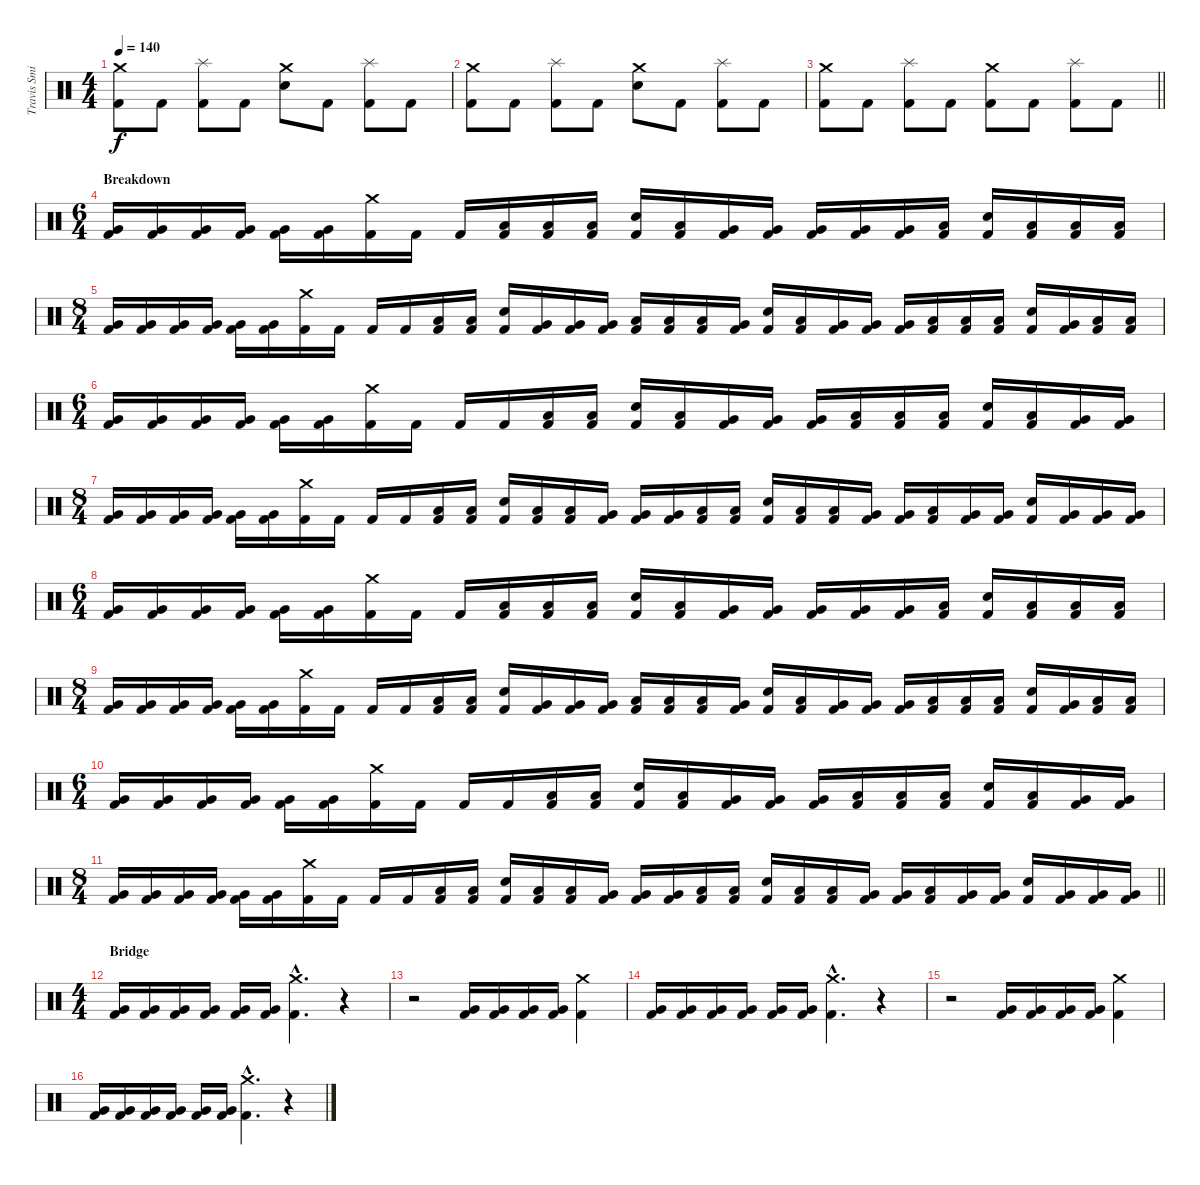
\track ("Travis Smith" "Travis Smi") {instrument percussion}
\staff {score}
\articulation defaults
\ts (4 4)
\tempo 140
\clef neutral
\ks c
("Crash medium (hit)" "Kick (hit) 2").8{dy f} "Kick (hit) 2".8 ("Splash (hit)" "Kick (hit) 2").8 "Kick (hit) 2".8 ("Crash medium (hit)" "Electric Snare (hit)").8 "Kick (hit) 2".8 ("Splash (hit)" "Kick (hit) 2").8 "Kick (hit) 2".8 |
("Crash medium (hit)" "Kick (hit) 2").8 "Kick (hit) 2".8 ("Splash (hit)" "Kick (hit) 2").8 "Kick (hit) 2".8 ("Crash medium (hit)" "Electric Snare (hit)").8 "Kick (hit) 2".8 ("Splash (hit)" "Kick (hit) 2").8 "Kick (hit) 2".8 |
\barLineRight lightlight
("Crash medium (hit)" "Kick (hit) 2").8 "Kick (hit) 2".8 ("Splash (hit)" "Kick (hit) 2").8 "Kick (hit) 2".8 ("Crash medium (hit)" "Kick (hit) 2").8 "Kick (hit) 2".8 ("Splash (hit)" "Kick (hit) 2").8 "Kick (hit) 2".8 |
\ts (6 4)
\section ("" "Breakdown")
("Very Low Tom (hit)" "Kick (hit) 2").16 ("Very Low Tom (hit)" "Kick (hit) 2").16 ("Very Low Tom (hit)" "Kick (hit) 2").16 ("Very Low Tom (hit)" "Kick (hit) 2").16 ("Very Low Tom (hit)" "Kick (hit) 2").16 ("Very Low Tom (hit)" "Kick (hit) 2").16 ("Crash medium (hit)" "Kick (hit) 2").16 "Kick (hit) 2".16 "Kick (hit) 2".16 ("Low Floor Tom (hit)" "Kick (hit) 2").16 ("Low Floor Tom (hit)" "Kick (hit) 2").16 ("Low Floor Tom (hit)" "Kick (hit) 2").16 ("Electric Snare (hit)" "Kick (hit) 2").16 ("Low Tom (hit)" "Kick (hit) 2").16 ("Very Low Tom (hit)" "Kick (hit) 2").16 ("Very Low Tom (hit)" "Kick (hit) 2").16 ("Very Low Tom (hit)" "Kick (hit) 2").16 ("Very Low Tom (hit)" "Kick (hit) 2").16 ("Very Low Tom (hit)" "Kick (hit) 2").16 ("Low Floor Tom (hit)" "Kick (hit) 2").16 ("Electric Snare (hit)" "Kick (hit) 2").16 ("Low Floor Tom (hit)" "Kick (hit) 2").16 ("Low Floor Tom (hit)" "Kick (hit) 2").16 ("Low Floor Tom (hit)" "Kick (hit) 2").16 |
\ts (8 4)
("Very Low Tom (hit)" "Kick (hit) 2").16 ("Very Low Tom (hit)" "Kick (hit) 2").16 ("Very Low Tom (hit)" "Kick (hit) 2").16 ("Very Low Tom (hit)" "Kick (hit) 2").16 ("Very Low Tom (hit)" "Kick (hit) 2").16 ("Very Low Tom (hit)" "Kick (hit) 2").16 ("Crash medium (hit)" "Kick (hit) 2").16 "Kick (hit) 2".16 "Kick (hit) 2".16 "Kick (hit) 2".16 ("Low Floor Tom (hit)" "Kick (hit) 2").16 ("Low Floor Tom (hit)" "Kick (hit) 2").16 ("Electric Snare (hit)" "Kick (hit) 2").16 ("Very Low Tom (hit)" "Kick (hit) 2").16 ("Very Low Tom (hit)" "Kick (hit) 2").16 ("Very Low Tom (hit)" "Kick (hit) 2").16 ("Low Floor Tom (hit)" "Kick (hit) 2").16 ("Low Floor Tom (hit)" "Kick (hit) 2").16 ("Low Floor Tom (hit)" "Kick (hit) 2").16 ("Very Low Tom (hit)" "Kick (hit) 2").16 ("Electric Snare (hit)" "Kick (hit) 2").16 ("Low Tom (hit)" "Kick (hit) 2").16 ("Very Low Tom (hit)" "Kick (hit) 2").16 ("Very Low Tom (hit)" "Kick (hit) 2").16 ("Very Low Tom (hit)" "Kick (hit) 2").16 ("Low Floor Tom (hit)" "Kick (hit) 2").16 ("Low Floor Tom (hit)" "Kick (hit) 2").16 ("Low Floor Tom (hit)" "Kick (hit) 2").16 ("Electric Snare (hit)" "Kick (hit) 2").16 ("Very Low Tom (hit)" "Kick (hit) 2").16 ("Low Floor Tom (hit)" "Kick (hit) 2").16 ("Low Floor Tom (hit)" "Kick (hit) 2").16 |
\ts (6 4)
("Very Low Tom (hit)" "Kick (hit) 2").16 ("Very Low Tom (hit)" "Kick (hit) 2").16 ("Very Low Tom (hit)" "Kick (hit) 2").16 ("Very Low Tom (hit)" "Kick (hit) 2").16 ("Very Low Tom (hit)" "Kick (hit) 2").16 ("Very Low Tom (hit)" "Kick (hit) 2").16 ("Crash medium (hit)" "Kick (hit) 2").16 "Kick (hit) 2".16 "Kick (hit) 2".16 "Kick (hit) 2".16 ("Low Floor Tom (hit)" "Kick (hit) 2").16 ("Low Floor Tom (hit)" "Kick (hit) 2").16 ("Electric Snare (hit)" "Kick (hit) 2").16 ("Low Tom (hit)" "Kick (hit) 2").16 ("Very Low Tom (hit)" "Kick (hit) 2").16 ("Very Low Tom (hit)" "Kick (hit) 2").16 ("Very Low Tom (hit)" "Kick (hit) 2").16 ("Low Floor Tom (hit)" "Kick (hit) 2").16 ("Low Floor Tom (hit)" "Kick (hit) 2").16 ("Low Floor Tom (hit)" "Kick (hit) 2").16 ("Electric Snare (hit)" "Kick (hit) 2").16 ("Low Tom (hit)" "Kick (hit) 2").16 ("Very Low Tom (hit)" "Kick (hit) 2").16 ("Very Low Tom (hit)" "Kick (hit) 2").16 |
\ts (8 4)
("Very Low Tom (hit)" "Kick (hit) 2").16 ("Very Low Tom (hit)" "Kick (hit) 2").16 ("Very Low Tom (hit)" "Kick (hit) 2").16 ("Very Low Tom (hit)" "Kick (hit) 2").16 ("Very Low Tom (hit)" "Kick (hit) 2").16 ("Very Low Tom (hit)" "Kick (hit) 2").16 ("Crash medium (hit)" "Kick (hit) 2").16 "Kick (hit) 2".16 "Kick (hit) 2".16 "Kick (hit) 2".16 ("Low Floor Tom (hit)" "Kick (hit) 2").16 ("Low Floor Tom (hit)" "Kick (hit) 2").16 ("Electric Snare (hit)" "Kick (hit) 2").16 ("Low Tom (hit)" "Kick (hit) 2").16 ("Low Tom (hit)" "Kick (hit) 2").16 ("Very Low Tom (hit)" "Kick (hit) 2").16 ("Very Low Tom (hit)" "Kick (hit) 2").16 ("Very Low Tom (hit)" "Kick (hit) 2").16 ("Low Floor Tom (hit)" "Kick (hit) 2").16 ("Low Floor Tom (hit)" "Kick (hit) 2").16 ("Electric Snare (hit)" "Kick (hit) 2").16 ("Low Tom (hit)" "Kick (hit) 2").16 ("Low Tom (hit)" "Kick (hit) 2").16 ("Very Low Tom (hit)" "Kick (hit) 2").16 ("Very Low Tom (hit)" "Kick (hit) 2").16 ("Low Floor Tom (hit)" "Kick (hit) 2").16 ("Very Low Tom (hit)" "Kick (hit) 2").16 ("Very Low Tom (hit)" "Kick (hit) 2").16 ("Electric Snare (hit)" "Kick (hit) 2").16 ("Very Low Tom (hit)" "Kick (hit) 2").16 ("Very Low Tom (hit)" "Kick (hit) 2").16 ("Very Low Tom (hit)" "Kick (hit) 2").16 |
\ts (6 4)
("Very Low Tom (hit)" "Kick (hit) 2").16 ("Very Low Tom (hit)" "Kick (hit) 2").16 ("Very Low Tom (hit)" "Kick (hit) 2").16 ("Very Low Tom (hit)" "Kick (hit) 2").16 ("Very Low Tom (hit)" "Kick (hit) 2").16 ("Very Low Tom (hit)" "Kick (hit) 2").16 ("Crash medium (hit)" "Kick (hit) 2").16 "Kick (hit) 2".16 "Kick (hit) 2".16 ("Low Floor Tom (hit)" "Kick (hit) 2").16 ("Low Floor Tom (hit)" "Kick (hit) 2").16 ("Low Floor Tom (hit)" "Kick (hit) 2").16 ("Electric Snare (hit)" "Kick (hit) 2").16 ("Low Tom (hit)" "Kick (hit) 2").16 ("Very Low Tom (hit)" "Kick (hit) 2").16 ("Very Low Tom (hit)" "Kick (hit) 2").16 ("Very Low Tom (hit)" "Kick (hit) 2").16 ("Very Low Tom (hit)" "Kick (hit) 2").16 ("Very Low Tom (hit)" "Kick (hit) 2").16 ("Low Floor Tom (hit)" "Kick (hit) 2").16 ("Electric Snare (hit)" "Kick (hit) 2").16 ("Low Floor Tom (hit)" "Kick (hit) 2").16 ("Low Floor Tom (hit)" "Kick (hit) 2").16 ("Low Floor Tom (hit)" "Kick (hit) 2").16 |
\ts (8 4)
("Very Low Tom (hit)" "Kick (hit) 2").16 ("Very Low Tom (hit)" "Kick (hit) 2").16 ("Very Low Tom (hit)" "Kick (hit) 2").16 ("Very Low Tom (hit)" "Kick (hit) 2").16 ("Very Low Tom (hit)" "Kick (hit) 2").16 ("Very Low Tom (hit)" "Kick (hit) 2").16 ("Crash medium (hit)" "Kick (hit) 2").16 "Kick (hit) 2".16 "Kick (hit) 2".16 "Kick (hit) 2".16 ("Low Floor Tom (hit)" "Kick (hit) 2").16 ("Low Floor Tom (hit)" "Kick (hit) 2").16 ("Electric Snare (hit)" "Kick (hit) 2").16 ("Very Low Tom (hit)" "Kick (hit) 2").16 ("Very Low Tom (hit)" "Kick (hit) 2").16 ("Very Low Tom (hit)" "Kick (hit) 2").16 ("Low Floor Tom (hit)" "Kick (hit) 2").16 ("Low Floor Tom (hit)" "Kick (hit) 2").16 ("Low Floor Tom (hit)" "Kick (hit) 2").16 ("Very Low Tom (hit)" "Kick (hit) 2").16 ("Electric Snare (hit)" "Kick (hit) 2").16 ("Low Tom (hit)" "Kick (hit) 2").16 ("Very Low Tom (hit)" "Kick (hit) 2").16 ("Very Low Tom (hit)" "Kick (hit) 2").16 ("Very Low Tom (hit)" "Kick (hit) 2").16 ("Low Floor Tom (hit)" "Kick (hit) 2").16 ("Low Floor Tom (hit)" "Kick (hit) 2").16 ("Low Floor Tom (hit)" "Kick (hit) 2").16 ("Electric Snare (hit)" "Kick (hit) 2").16 ("Very Low Tom (hit)" "Kick (hit) 2").16 ("Low Floor Tom (hit)" "Kick (hit) 2").16 ("Low Floor Tom (hit)" "Kick (hit) 2").16 |
\ts (6 4)
("Very Low Tom (hit)" "Kick (hit) 2").16 ("Very Low Tom (hit)" "Kick (hit) 2").16 ("Very Low Tom (hit)" "Kick (hit) 2").16 ("Very Low Tom (hit)" "Kick (hit) 2").16 ("Very Low Tom (hit)" "Kick (hit) 2").16 ("Very Low Tom (hit)" "Kick (hit) 2").16 ("Crash medium (hit)" "Kick (hit) 2").16 "Kick (hit) 2".16 "Kick (hit) 2".16 "Kick (hit) 2".16 ("Low Floor Tom (hit)" "Kick (hit) 2").16 ("Low Floor Tom (hit)" "Kick (hit) 2").16 ("Electric Snare (hit)" "Kick (hit) 2").16 ("Low Tom (hit)" "Kick (hit) 2").16 ("Very Low Tom (hit)" "Kick (hit) 2").16 ("Very Low Tom (hit)" "Kick (hit) 2").16 ("Very Low Tom (hit)" "Kick (hit) 2").16 ("Low Floor Tom (hit)" "Kick (hit) 2").16 ("Low Floor Tom (hit)" "Kick (hit) 2").16 ("Low Floor Tom (hit)" "Kick (hit) 2").16 ("Electric Snare (hit)" "Kick (hit) 2").16 ("Low Tom (hit)" "Kick (hit) 2").16 ("Very Low Tom (hit)" "Kick (hit) 2").16 ("Very Low Tom (hit)" "Kick (hit) 2").16 |
\ts (8 4)
\barLineRight lightlight
("Very Low Tom (hit)" "Kick (hit) 2").16 ("Very Low Tom (hit)" "Kick (hit) 2").16 ("Very Low Tom (hit)" "Kick (hit) 2").16 ("Very Low Tom (hit)" "Kick (hit) 2").16 ("Very Low Tom (hit)" "Kick (hit) 2").16 ("Very Low Tom (hit)" "Kick (hit) 2").16 ("Crash medium (hit)" "Kick (hit) 2").16 "Kick (hit) 2".16 "Kick (hit) 2".16 "Kick (hit) 2".16 ("Low Floor Tom (hit)" "Kick (hit) 2").16 ("Low Floor Tom (hit)" "Kick (hit) 2").16 ("Electric Snare (hit)" "Kick (hit) 2").16 ("Low Tom (hit)" "Kick (hit) 2").16 ("Low Tom (hit)" "Kick (hit) 2").16 ("Very Low Tom (hit)" "Kick (hit) 2").16 ("Very Low Tom (hit)" "Kick (hit) 2").16 ("Very Low Tom (hit)" "Kick (hit) 2").16 ("Low Floor Tom (hit)" "Kick (hit) 2").16 ("Low Floor Tom (hit)" "Kick (hit) 2").16 ("Electric Snare (hit)" "Kick (hit) 2").16 ("Low Tom (hit)" "Kick (hit) 2").16 ("Low Tom (hit)" "Kick (hit) 2").16 ("Very Low Tom (hit)" "Kick (hit) 2").16 ("Very Low Tom (hit)" "Kick (hit) 2").16 ("Low Floor Tom (hit)" "Kick (hit) 2").16 ("Very Low Tom (hit)" "Kick (hit) 2").16 ("Very Low Tom (hit)" "Kick (hit) 2").16 ("Electric Snare (hit)" "Kick (hit) 2").16 ("Very Low Tom (hit)" "Kick (hit) 2").16 ("Very Low Tom (hit)" "Kick (hit) 2").16 ("Very Low Tom (hit)" "Kick (hit) 2").16 |
\ts (4 4)
\section ("" "Bridge")
("Very Low Tom (hit)" "Kick (hit) 2").16 ("Very Low Tom (hit)" "Kick (hit) 2").16 ("Very Low Tom (hit)" "Kick (hit) 2").16 ("Very Low Tom (hit)" "Kick (hit) 2").16 ("Very Low Tom (hit)" "Kick (hit) 2").16 ("Very Low Tom (hit)" "Kick (hit) 2").16 ("Crash medium (hit)"{hac} "Kick (hit) 2"{hac}).4{d} r.4 |
r.2 ("Very Low Tom (hit)" "Kick (hit) 2").16 ("Very Low Tom (hit)" "Kick (hit) 2").16 ("Very Low Tom (hit)" "Kick (hit) 2").16 ("Very Low Tom (hit)" "Kick (hit) 2").16 ("Crash medium (hit)" "Kick (hit) 2").4 |
("Very Low Tom (hit)" "Kick (hit) 2").16 ("Very Low Tom (hit)" "Kick (hit) 2").16 ("Very Low Tom (hit)" "Kick (hit) 2").16 ("Very Low Tom (hit)" "Kick (hit) 2").16 ("Very Low Tom (hit)" "Kick (hit) 2").16 ("Very Low Tom (hit)" "Kick (hit) 2").16 ("Crash medium (hit)"{hac} "Kick (hit) 2"{hac}).4{d} r.4 |
r.2 ("Very Low Tom (hit)" "Kick (hit) 2").16 ("Very Low Tom (hit)" "Kick (hit) 2").16 ("Very Low Tom (hit)" "Kick (hit) 2").16 ("Very Low Tom (hit)" "Kick (hit) 2").16 ("Crash medium (hit)" "Kick (hit) 2").4 |
("Very Low Tom (hit)" "Kick (hit) 2").16 ("Very Low Tom (hit)" "Kick (hit) 2").16 ("Very Low Tom (hit)" "Kick (hit) 2").16 ("Very Low Tom (hit)" "Kick (hit) 2").16 ("Very Low Tom (hit)" "Kick (hit) 2").16 ("Very Low Tom (hit)" "Kick (hit) 2").16 ("Crash medium (hit)"{hac} "Kick (hit) 2"{hac}).4{d} r.4
